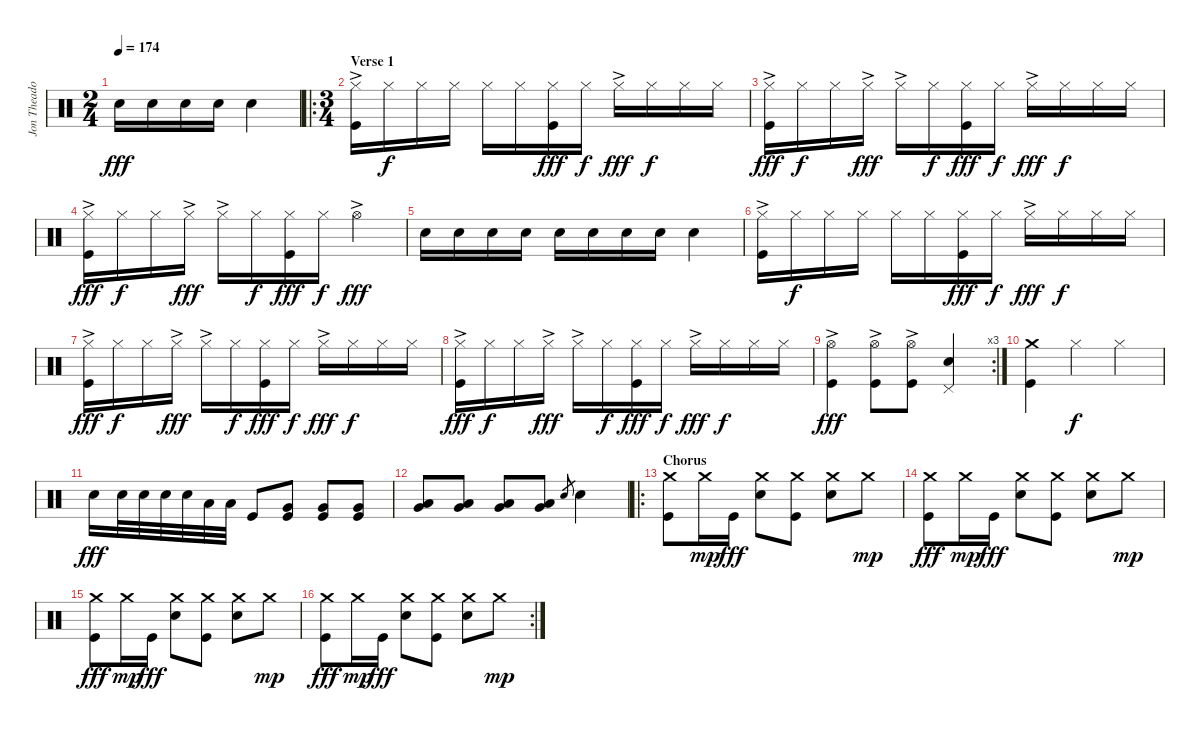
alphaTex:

\track ("Jon Theadore - Drums" "Jon Theado") {instrument percussion}
\staff {score}
\articulation defaults
\ts (2 4)
\tempo 174
\clef neutral
\ks c "Snare (hit) 2".16{dy fff} "Snare (hit) 2".16 "Snare (hit) 2".16 "Snare (hit) 2".16 "Snare (hit) 2".4
|
\ro
\ts (3 4)
\section ("" "Verse 1")
("Hi-Hat (closed)"{ac} "Kick (hit)").16 "Hi-Hat (closed)".16{dy f} "Hi-Hat (closed)".16 "Hi-Hat (closed)".16 "Hi-Hat (closed)".16 "Hi-Hat (closed)".16 ("Hi-Hat (closed)" "Kick (hit)").16{dy fff} "Hi-Hat (closed)".16{dy f} "Hi-Hat (closed)"{ac}.16{dy fff} "Hi-Hat (closed)".16{dy f} "Hi-Hat (closed)".16 "Hi-Hat (closed)".16 |
("Hi-Hat (closed)"{ac} "Kick (hit)").16{dy fff} "Hi-Hat (closed)".16{dy f} "Hi-Hat (closed)".16 "Hi-Hat (closed)"{ac}.16{dy fff} "Hi-Hat (closed)"{ac}.16 "Hi-Hat (closed)".16{dy f} ("Hi-Hat (closed)" "Kick (hit)").16{dy fff} "Hi-Hat (closed)".16{dy f} "Hi-Hat (closed)"{ac}.16{dy fff} "Hi-Hat (closed)".16{dy f} "Hi-Hat (closed)".16 "Hi-Hat (closed)".16 |
("Hi-Hat (closed)"{ac} "Kick (hit)").16{dy fff} "Hi-Hat (closed)".16{dy f} "Hi-Hat (closed)".16 "Hi-Hat (closed)"{ac}.16{dy fff} "Hi-Hat (closed)"{ac}.16 "Hi-Hat (closed)".16{dy f} ("Hi-Hat (closed)" "Kick (hit)").16{dy fff} "Hi-Hat (closed)".16{dy f} "Hi-Hat (open)"{ac}.4{dy fff} |
"Snare (hit) 2".16 "Snare (hit) 2".16 "Snare (hit) 2".16 "Snare (hit) 2".16 "Snare (hit) 2".16 "Snare (hit) 2".16 "Snare (hit) 2".16 "Snare (hit) 2".16 "Snare (hit) 2".4 |
("Hi-Hat (closed)"{ac} "Kick (hit)").16 "Hi-Hat (closed)".16{dy f} "Hi-Hat (closed)".16 "Hi-Hat (closed)".16 "Hi-Hat (closed)".16 "Hi-Hat (closed)".16 ("Hi-Hat (closed)" "Kick (hit)").16{dy fff} "Hi-Hat (closed)".16{dy f} "Hi-Hat (closed)"{ac}.16{dy fff} "Hi-Hat (closed)".16{dy f} "Hi-Hat (closed)".16 "Hi-Hat (closed)".16 |
("Hi-Hat (closed)"{ac} "Kick (hit)").16{dy fff} "Hi-Hat (closed)".16{dy f} "Hi-Hat (closed)".16 "Hi-Hat (closed)"{ac}.16{dy fff} "Hi-Hat (closed)"{ac}.16 "Hi-Hat (closed)".16{dy f} ("Hi-Hat (closed)" "Kick (hit)").16{dy fff} "Hi-Hat (closed)".16{dy f} "Hi-Hat (closed)"{ac}.16{dy fff} "Hi-Hat (closed)".16{dy f} "Hi-Hat (closed)".16 "Hi-Hat (closed)".16 |
("Hi-Hat (closed)"{ac} "Kick (hit)").16{dy fff} "Hi-Hat (closed)".16{dy f} "Hi-Hat (closed)".16 "Hi-Hat (closed)"{ac}.16{dy fff} "Hi-Hat (closed)"{ac}.16 "Hi-Hat (closed)".16{dy f} ("Hi-Hat (closed)" "Kick (hit)").16{dy fff} "Hi-Hat (closed)".16{dy f} "Hi-Hat (closed)"{ac}.16{dy fff} "Hi-Hat (closed)".16{dy f} "Hi-Hat (closed)".16 "Hi-Hat (closed)".16 |
\rc 3
("Hi-Hat (open)"{ac} "Kick (hit)").4{dy fff} ("Hi-Hat (open)"{ac} "Kick (hit)").8 ("Hi-Hat (open)"{ac} "Kick (hit)").8 ("Pedal Hi-Hat (hit)" "Snare (hit) 2").4 |
("Crash medium (hit)" "Kick (hit)").4 "Hi-Hat (closed)".4{dy f} "Hi-Hat (closed)".4 |
"Snare (hit) 2".16{dy fff} "Snare (hit) 2".32 "Snare (hit) 2".32 "Snare (hit) 2".32 "Snare (hit) 2".32 "Low Tom (hit)".32 "Low Tom (hit)".32 "Kick (hit)".8 ("Very Low Tom (hit)" "Kick (hit)").8 ("Very Low Tom (hit)" "Kick (hit)").8 ("Very Low Tom (hit)" "Kick (hit)").8 |
("Low Tom (hit)" "Very Low Tom (hit)").8 ("Low Tom (hit)" "Very Low Tom (hit)").8 ("Low Tom (hit)" "Very Low Tom (hit)").8 ("Low Tom (hit)" "Very Low Tom (hit)").8 "Snare (hit) 2".8{gr} "Snare (hit) 2".4 |
\ro
\section ("" "Chorus")
("Crash medium (hit)" "Kick (hit)").8 "Crash medium (hit)".16{dy mp} "Kick (hit)".16{dy fff} ("Crash medium (hit)" "Snare (hit) 2").8 ("Crash medium (hit)" "Kick (hit)").8 ("Crash medium (hit)" "Snare (hit) 2").8 "Crash medium (hit)".8{dy mp} |
("Crash medium (hit)" "Kick (hit)").8{dy fff} "Crash medium (hit)".16{dy mp} "Kick (hit)".16{dy fff} ("Crash medium (hit)" "Snare (hit) 2").8 ("Crash medium (hit)" "Kick (hit)").8 ("Crash medium (hit)" "Snare (hit) 2").8 "Crash medium (hit)".8{dy mp} |
("Crash medium (hit)" "Kick (hit)").8{dy fff} "Crash medium (hit)".16{dy mp} "Kick (hit)".16{dy fff} ("Crash medium (hit)" "Snare (hit) 2").8 ("Crash medium (hit)" "Kick (hit)").8 ("Crash medium (hit)" "Snare (hit) 2").8 "Crash medium (hit)".8{dy mp} |
\rc 2
("Crash medium (hit)" "Kick (hit)").8{dy fff} "Crash medium (hit)".16{dy mp} "Kick (hit)".16{dy fff} ("Crash medium (hit)" "Snare (hit) 2").8 ("Crash medium (hit)" "Kick (hit)").8 ("Crash medium (hit)" "Snare (hit) 2").8 "Crash medium (hit)".8{dy mp}
